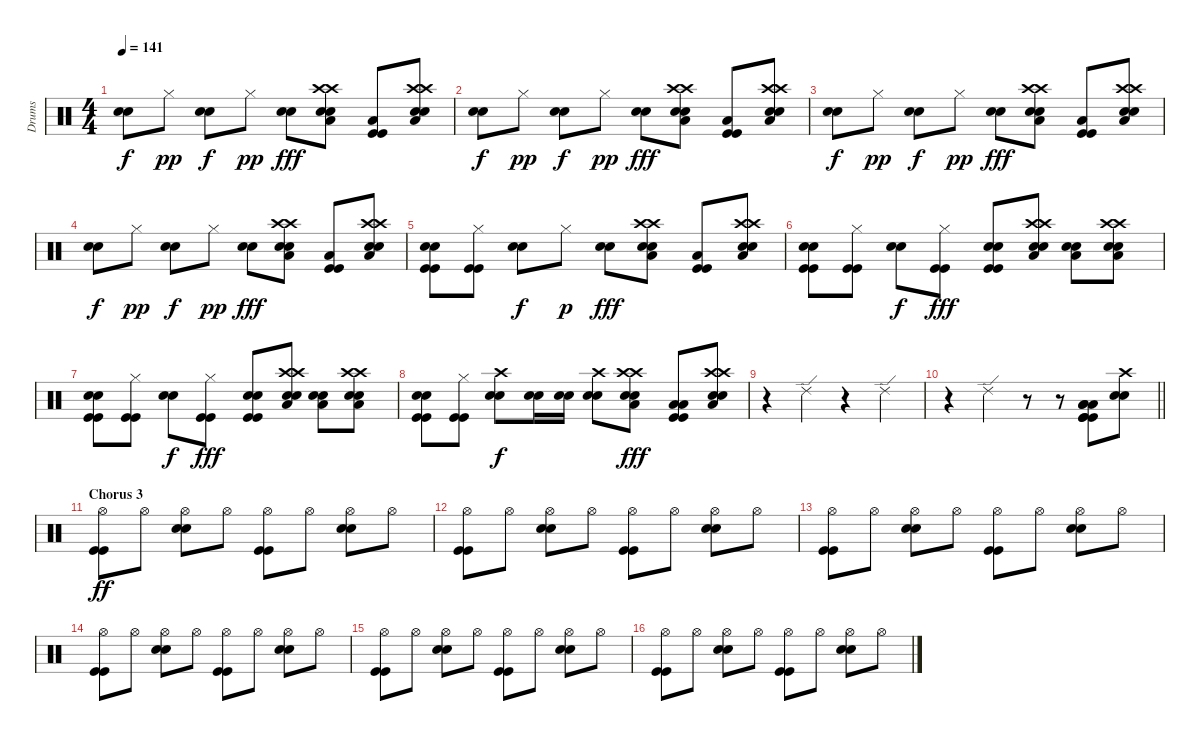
\track ("Drums" "Drums") {instrument percussion}
\staff {score}
\articulation defaults
\ts (4 4)
\tempo 141
\clef neutral
\ks c
("Snare (hit) 2" "Snare (hit) 2").8{dy f} "Hi-Hat (closed)".8{dy pp} ("Snare (hit) 2" "Snare (hit) 2").8{dy f} "Hi-Hat (closed)".8{dy pp} ("Snare (hit) 2" "Snare (hit) 2").8{dy fff} ("Crash high (hit)" "Crash high (hit)" "Snare (hit) 2" "Snare (hit) 2" "Low Floor Tom (hit)").8 ("Kick (hit)" "Kick (hit)" "Low Floor Tom (hit)").8 ("Crash high (hit)" "Crash high (hit)" "Snare (hit) 2" "Snare (hit) 2" "Low Floor Tom (hit)").8 |
("Snare (hit) 2" "Snare (hit) 2").8{dy f} "Hi-Hat (closed)".8{dy pp} ("Snare (hit) 2" "Snare (hit) 2").8{dy f} "Hi-Hat (closed)".8{dy pp} ("Snare (hit) 2" "Snare (hit) 2").8{dy fff} ("Crash high (hit)" "Crash high (hit)" "Snare (hit) 2" "Snare (hit) 2" "Low Floor Tom (hit)").8 ("Kick (hit)" "Kick (hit)" "Low Floor Tom (hit)").8 ("Crash high (hit)" "Crash high (hit)" "Snare (hit) 2" "Snare (hit) 2" "Low Floor Tom (hit)").8 |
("Snare (hit) 2" "Snare (hit) 2").8{dy f} "Hi-Hat (closed)".8{dy pp} ("Snare (hit) 2" "Snare (hit) 2").8{dy f} "Hi-Hat (closed)".8{dy pp} ("Snare (hit) 2" "Snare (hit) 2").8{dy fff} ("Crash high (hit)" "Crash high (hit)" "Snare (hit) 2" "Snare (hit) 2" "Low Floor Tom (hit)").8 ("Kick (hit)" "Kick (hit)" "Low Floor Tom (hit)").8 ("Crash high (hit)" "Crash high (hit)" "Snare (hit) 2" "Snare (hit) 2" "Low Floor Tom (hit)").8 |
("Snare (hit) 2" "Snare (hit) 2").8{dy f} "Hi-Hat (closed)".8{dy pp} ("Snare (hit) 2" "Snare (hit) 2").8{dy f} "Hi-Hat (closed)".8{dy pp} ("Snare (hit) 2" "Snare (hit) 2").8{dy fff} ("Crash high (hit)" "Crash high (hit)" "Snare (hit) 2" "Snare (hit) 2" "Low Floor Tom (hit)").8 ("Kick (hit)" "Kick (hit)" "Low Floor Tom (hit)").8 ("Crash high (hit)" "Crash high (hit)" "Snare (hit) 2" "Snare (hit) 2" "Low Floor Tom (hit)").8 |
("Snare (hit) 2" "Snare (hit) 2" "Kick (hit)" "Kick (hit)").8 ("Hi-Hat (closed)" "Kick (hit)" "Kick (hit)").8 ("Snare (hit) 2" "Snare (hit) 2").8{dy f} "Hi-Hat (closed)".8{dy p} ("Snare (hit) 2" "Snare (hit) 2").8{dy fff} ("Crash high (hit)" "Crash high (hit)" "Snare (hit) 2" "Snare (hit) 2" "Low Floor Tom (hit)").8 ("Kick (hit)" "Kick (hit)" "Low Floor Tom (hit)").8 ("Crash high (hit)" "Crash high (hit)" "Snare (hit) 2" "Snare (hit) 2" "Low Floor Tom (hit)").8 |
("Snare (hit) 2" "Snare (hit) 2" "Kick (hit)" "Kick (hit)").8 ("Hi-Hat (closed)" "Kick (hit)" "Kick (hit)").8 ("Snare (hit) 2" "Snare (hit) 2").8{dy f} ("Hi-Hat (closed)" "Kick (hit)" "Kick (hit)").8{dy fff} ("Snare (hit) 2" "Snare (hit) 2" "Kick (hit)" "Kick (hit)").8 ("Crash high (hit)" "Crash high (hit)" "Snare (hit) 2" "Snare (hit) 2" "Low Floor Tom (hit)").8 ("Snare (hit) 2" "Snare (hit) 2" "Low Floor Tom (hit)").8 ("Crash high (hit)" "Crash high (hit)" "Snare (hit) 2" "Snare (hit) 2" "Low Floor Tom (hit)").8 |
("Snare (hit) 2" "Snare (hit) 2" "Kick (hit)" "Kick (hit)").8 ("Hi-Hat (closed)" "Kick (hit)" "Kick (hit)").8 ("Snare (hit) 2" "Snare (hit) 2").8{dy f} ("Hi-Hat (closed)" "Kick (hit)" "Kick (hit)").8{dy fff} ("Snare (hit) 2" "Snare (hit) 2" "Kick (hit)" "Kick (hit)").8 ("Crash high (hit)" "Crash high (hit)" "Snare (hit) 2" "Snare (hit) 2" "Low Floor Tom (hit)").8 ("Snare (hit) 2" "Snare (hit) 2" "Low Floor Tom (hit)").8 ("Crash high (hit)" "Crash high (hit)" "Snare (hit) 2" "Snare (hit) 2" "Low Floor Tom (hit)").8 |
("Snare (hit) 2" "Snare (hit) 2" "Kick (hit)" "Kick (hit)").8 ("Hi-Hat (closed)" "Kick (hit)" "Kick (hit)").8 ("Crash high (hit)" "Snare (hit) 2" "Snare (hit) 2").8{dy f} ("Snare (hit) 2" "Snare (hit) 2").16 ("Snare (hit) 2" "Snare (hit) 2").16 ("Crash high (hit)" "Snare (hit) 2" "Snare (hit) 2").8 ("Crash high (hit)" "Crash high (hit)" "Snare (hit) 2" "Snare (hit) 2" "Low Floor Tom (hit)").8{dy fff} ("Low Floor Tom (hit)" "Low Floor Tom (hit)" "Kick (hit)" "Kick (hit)").8 ("Crash high (hit)" "Crash high (hit)" "Snare (hit) 2" "Snare (hit) 2" "Low Floor Tom (hit)").8 |
r.4 "Ride (edge) 2".4 r.4 "Ride (edge) 2".4 |
\barLineRight lightlight
r.4 "Ride (edge) 2".4 r.8 r.8 ("Kick (hit)" "Kick (hit)" "Kick (hit)" "Low Floor Tom (hit)" "Low Floor Tom (hit)" "Low Floor Tom (hit)").8 ("Crash high (hit)" "Snare (hit) 2" "Snare (hit) 2").8 |
\section ("" "Chorus 3")
("Hi-Hat (open)" "Kick (hit)" "Kick (hit)").8{dy ff} "Hi-Hat (open)".8 ("Hi-Hat (open)" "Snare (hit) 2" "Snare (hit) 2").8 "Hi-Hat (open)".8 ("Hi-Hat (open)" "Kick (hit)" "Kick (hit)").8 "Hi-Hat (open)".8 ("Hi-Hat (open)" "Snare (hit) 2" "Snare (hit) 2").8 "Hi-Hat (open)".8 |
("Hi-Hat (open)" "Kick (hit)" "Kick (hit)").8 "Hi-Hat (open)".8 ("Hi-Hat (open)" "Snare (hit) 2" "Snare (hit) 2").8 "Hi-Hat (open)".8 ("Hi-Hat (open)" "Kick (hit)" "Kick (hit)").8 "Hi-Hat (open)".8 ("Hi-Hat (open)" "Snare (hit) 2" "Snare (hit) 2").8 "Hi-Hat (open)".8 |
("Hi-Hat (open)" "Kick (hit)" "Kick (hit)").8 "Hi-Hat (open)".8 ("Hi-Hat (open)" "Snare (hit) 2" "Snare (hit) 2").8 "Hi-Hat (open)".8 ("Hi-Hat (open)" "Kick (hit)" "Kick (hit)").8 "Hi-Hat (open)".8 ("Hi-Hat (open)" "Snare (hit) 2" "Snare (hit) 2").8 "Hi-Hat (open)".8 |
("Hi-Hat (open)" "Kick (hit)" "Kick (hit)").8 "Hi-Hat (open)".8 ("Hi-Hat (open)" "Snare (hit) 2" "Snare (hit) 2").8 "Hi-Hat (open)".8 ("Hi-Hat (open)" "Kick (hit)" "Kick (hit)").8 "Hi-Hat (open)".8 ("Hi-Hat (open)" "Snare (hit) 2" "Snare (hit) 2").8 "Hi-Hat (open)".8 |
("Hi-Hat (open)" "Kick (hit)" "Kick (hit)").8 "Hi-Hat (open)".8 ("Hi-Hat (open)" "Snare (hit) 2" "Snare (hit) 2").8 "Hi-Hat (open)".8 ("Hi-Hat (open)" "Kick (hit)" "Kick (hit)").8 "Hi-Hat (open)".8 ("Hi-Hat (open)" "Snare (hit) 2" "Snare (hit) 2").8 "Hi-Hat (open)".8 |
("Hi-Hat (open)" "Kick (hit)" "Kick (hit)").8 "Hi-Hat (open)".8 ("Hi-Hat (open)" "Snare (hit) 2" "Snare (hit) 2").8 "Hi-Hat (open)".8 ("Hi-Hat (open)" "Kick (hit)" "Kick (hit)").8 "Hi-Hat (open)".8 ("Hi-Hat (open)" "Snare (hit) 2" "Snare (hit) 2").8 "Hi-Hat (open)".8
